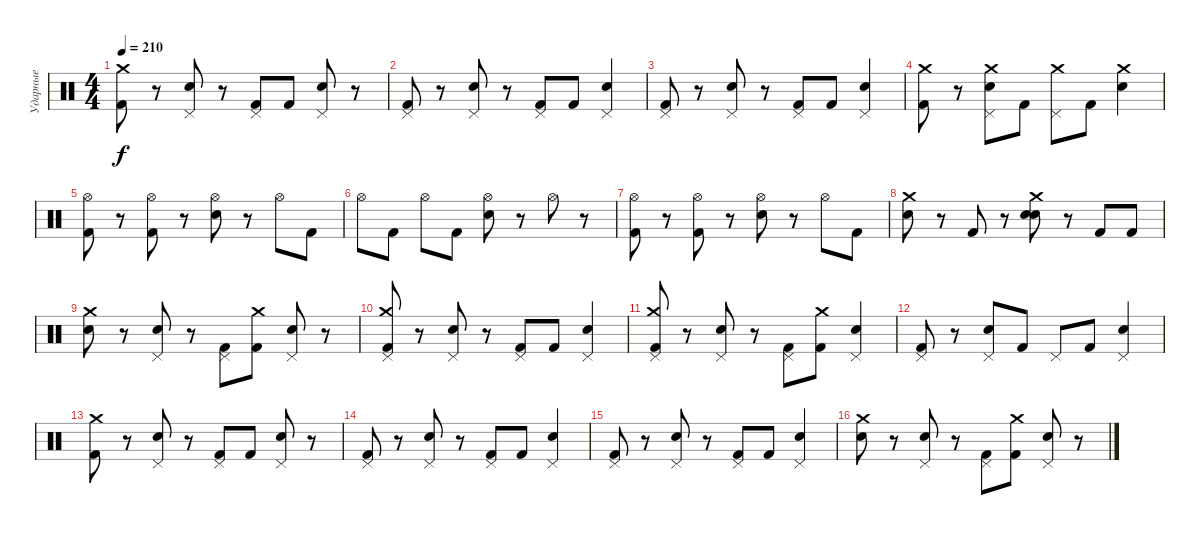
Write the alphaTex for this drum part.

\track ("Ударные" "Ударные") {instrument percussion}
\staff {score}
\articulation defaults
\ts (4 4)
\tempo 210
\clef neutral
\ks c
("Kick (hit) 2" "Crash medium (hit)").8{dy f} r.8 ("Pedal Hi-Hat (hit)" "Electric Snare (hit)").8 r.8 ("Kick (hit) 2" "Pedal Hi-Hat (hit)").8 "Kick (hit) 2".8 ("Electric Snare (hit)" "Pedal Hi-Hat (hit)").8 r.8 |
("Kick (hit) 2" "Pedal Hi-Hat (hit)").8 r.8 ("Pedal Hi-Hat (hit)" "Electric Snare (hit)").8 r.8 ("Kick (hit) 2" "Pedal Hi-Hat (hit)").8 "Kick (hit) 2".8 ("Electric Snare (hit)" "Pedal Hi-Hat (hit)").4 |
("Kick (hit) 2" "Pedal Hi-Hat (hit)").8 r.8 ("Pedal Hi-Hat (hit)" "Electric Snare (hit)").8 r.8 ("Kick (hit) 2" "Pedal Hi-Hat (hit)").8 "Kick (hit) 2".8 ("Electric Snare (hit)" "Pedal Hi-Hat (hit)").4 |
("Kick (hit) 2" "Crash medium (hit)").8 r.8 ("Pedal Hi-Hat (hit)" "Electric Snare (hit)" "Crash medium (hit)").8 "Kick (hit) 2".8 ("Pedal Hi-Hat (hit)" "Crash medium (hit)").8 "Kick (hit) 2".8 ("Electric Snare (hit)" "Crash medium (hit)").4 |
("Kick (hit) 2" "Hi-Hat (open)").8 r.8 ("Kick (hit) 2" "Hi-Hat (open)").8 r.8 ("Electric Snare (hit)" "Hi-Hat (open)").8 r.8 "Hi-Hat (open)".8 "Kick (hit) 2".8 |
"Hi-Hat (open)".8 "Kick (hit) 2".8 "Hi-Hat (open)".8 "Kick (hit) 2".8 ("Electric Snare (hit)" "Hi-Hat (open)").8 r.8 "Hi-Hat (open)".8 r.8 |
("Kick (hit) 2" "Hi-Hat (open)").8 r.8 ("Kick (hit) 2" "Hi-Hat (open)").8 r.8 ("Electric Snare (hit)" "Hi-Hat (open)").8 r.8 "Hi-Hat (open)".8 "Kick (hit) 2".8 |
("Electric Snare (hit)" "Crash medium (hit)").8 r.8 "Kick (hit) 2".8 r.8 ("Electric Snare (hit)" "Electric Snare (hit)" "Crash medium (hit)").8 r.8 "Kick (hit) 2".8 "Kick (hit) 2".8 |
("Electric Snare (hit)" "Crash medium (hit)").8 r.8 ("Pedal Hi-Hat (hit)" "Electric Snare (hit)").8 r.8 ("Kick (hit) 2" "Pedal Hi-Hat (hit)").8 ("Kick (hit) 2" "Crash medium (hit)").8 ("Electric Snare (hit)" "Pedal Hi-Hat (hit)").8 r.8 |
("Kick (hit) 2" "Pedal Hi-Hat (hit)" "Crash medium (hit)").8 r.8 ("Pedal Hi-Hat (hit)" "Electric Snare (hit)").8 r.8 ("Kick (hit) 2" "Pedal Hi-Hat (hit)").8 "Kick (hit) 2".8 ("Electric Snare (hit)" "Pedal Hi-Hat (hit)").4 |
("Kick (hit) 2" "Pedal Hi-Hat (hit)" "Crash medium (hit)").8 r.8 ("Pedal Hi-Hat (hit)" "Electric Snare (hit)").8 r.8 ("Kick (hit) 2" "Pedal Hi-Hat (hit)").8 ("Kick (hit) 2" "Crash medium (hit)").8 ("Electric Snare (hit)" "Pedal Hi-Hat (hit)").4 |
("Kick (hit) 2" "Pedal Hi-Hat (hit)").8 r.8 ("Pedal Hi-Hat (hit)" "Electric Snare (hit)").8 "Kick (hit) 2".8 "Pedal Hi-Hat (hit)".8 "Kick (hit) 2".8 ("Electric Snare (hit)" "Pedal Hi-Hat (hit)").4 |
("Kick (hit) 2" "Crash medium (hit)").8 r.8 ("Pedal Hi-Hat (hit)" "Electric Snare (hit)").8 r.8 ("Kick (hit) 2" "Pedal Hi-Hat (hit)").8 "Kick (hit) 2".8 ("Electric Snare (hit)" "Pedal Hi-Hat (hit)").8 r.8 |
("Kick (hit) 2" "Pedal Hi-Hat (hit)").8 r.8 ("Pedal Hi-Hat (hit)" "Electric Snare (hit)").8 r.8 ("Kick (hit) 2" "Pedal Hi-Hat (hit)").8 "Kick (hit) 2".8 ("Electric Snare (hit)" "Pedal Hi-Hat (hit)").4 |
("Kick (hit) 2" "Pedal Hi-Hat (hit)").8 r.8 ("Pedal Hi-Hat (hit)" "Electric Snare (hit)").8 r.8 ("Kick (hit) 2" "Pedal Hi-Hat (hit)").8 "Kick (hit) 2".8 ("Electric Snare (hit)" "Pedal Hi-Hat (hit)").4 |
("Electric Snare (hit)" "Crash medium (hit)").8 r.8 ("Pedal Hi-Hat (hit)" "Electric Snare (hit)").8 r.8 ("Kick (hit) 2" "Pedal Hi-Hat (hit)").8 ("Kick (hit) 2" "Crash medium (hit)").8 ("Electric Snare (hit)" "Pedal Hi-Hat (hit)").8 r.8
